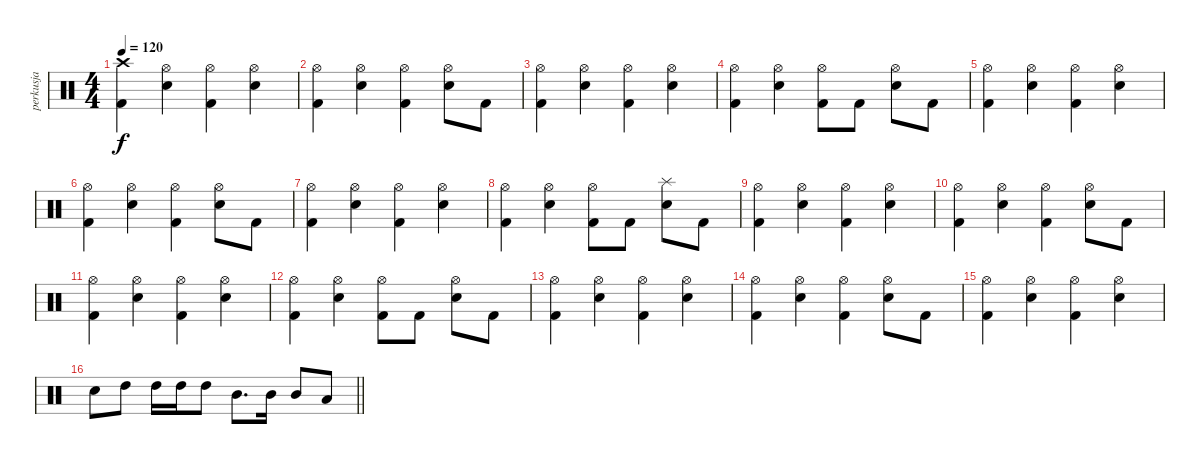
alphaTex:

\track ("perkusja" "perkusja") {instrument percussion}
\staff {score}
\articulation defaults
\ts (4 4)
\tempo 120
\clef neutral
\ks c
("Crash high (hit)" "Kick (hit) 2").4{dy f} ("Hi-Hat (open)" "Electric Snare (hit)").4 ("Hi-Hat (open)" "Kick (hit) 2").4 ("Hi-Hat (open)" "Electric Snare (hit)").4 |
("Hi-Hat (open)" "Kick (hit) 2").4 ("Hi-Hat (open)" "Electric Snare (hit)").4 ("Hi-Hat (open)" "Kick (hit) 2").4 ("Hi-Hat (open)" "Electric Snare (hit)").8 "Kick (hit) 2".8 |
("Hi-Hat (open)" "Kick (hit) 2").4 ("Hi-Hat (open)" "Electric Snare (hit)").4 ("Hi-Hat (open)" "Kick (hit) 2").4 ("Hi-Hat (open)" "Electric Snare (hit)").4 |
("Hi-Hat (open)" "Kick (hit) 2").4 ("Hi-Hat (open)" "Electric Snare (hit)").4 ("Hi-Hat (open)" "Kick (hit) 2").8 "Kick (hit) 2".8 ("Hi-Hat (open)" "Electric Snare (hit)").8 "Kick (hit) 2".8 |
("Hi-Hat (open)" "Kick (hit) 2").4 ("Hi-Hat (open)" "Electric Snare (hit)").4 ("Hi-Hat (open)" "Kick (hit) 2").4 ("Hi-Hat (open)" "Electric Snare (hit)").4 |
("Hi-Hat (open)" "Kick (hit) 2").4 ("Hi-Hat (open)" "Electric Snare (hit)").4 ("Hi-Hat (open)" "Kick (hit) 2").4 ("Hi-Hat (open)" "Electric Snare (hit)").8 "Kick (hit) 2".8 |
("Hi-Hat (open)" "Kick (hit) 2").4 ("Hi-Hat (open)" "Electric Snare (hit)").4 ("Hi-Hat (open)" "Kick (hit) 2").4 ("Hi-Hat (open)" "Electric Snare (hit)").4 |
("Hi-Hat (open)" "Kick (hit) 2").4 ("Hi-Hat (open)" "Electric Snare (hit)").4 ("Hi-Hat (open)" "Kick (hit) 2").8 "Kick (hit) 2".8 ("Splash (hit)" "Electric Snare (hit)").8 "Kick (hit) 2".8 |
("Hi-Hat (open)" "Kick (hit) 2").4 ("Hi-Hat (open)" "Electric Snare (hit)").4 ("Hi-Hat (open)" "Kick (hit) 2").4 ("Hi-Hat (open)" "Electric Snare (hit)").4 |
("Hi-Hat (open)" "Kick (hit) 2").4 ("Hi-Hat (open)" "Electric Snare (hit)").4 ("Hi-Hat (open)" "Kick (hit) 2").4 ("Hi-Hat (open)" "Electric Snare (hit)").8 "Kick (hit) 2".8 |
("Hi-Hat (open)" "Kick (hit) 2").4 ("Hi-Hat (open)" "Electric Snare (hit)").4 ("Hi-Hat (open)" "Kick (hit) 2").4 ("Hi-Hat (open)" "Electric Snare (hit)").4 |
("Hi-Hat (open)" "Kick (hit) 2").4 ("Hi-Hat (open)" "Electric Snare (hit)").4 ("Hi-Hat (open)" "Kick (hit) 2").8 "Kick (hit) 2".8 ("Hi-Hat (open)" "Electric Snare (hit)").8 "Kick (hit) 2".8 |
("Hi-Hat (open)" "Kick (hit) 2").4 ("Hi-Hat (open)" "Electric Snare (hit)").4 ("Hi-Hat (open)" "Kick (hit) 2").4 ("Hi-Hat (open)" "Electric Snare (hit)").4 |
("Hi-Hat (open)" "Kick (hit) 2").4 ("Hi-Hat (open)" "Electric Snare (hit)").4 ("Hi-Hat (open)" "Kick (hit) 2").4 ("Hi-Hat (open)" "Electric Snare (hit)").8 "Kick (hit) 2".8 |
("Hi-Hat (open)" "Kick (hit) 2").4 ("Hi-Hat (open)" "Electric Snare (hit)").4 ("Hi-Hat (open)" "Kick (hit) 2").4 ("Hi-Hat (open)" "Electric Snare (hit)").4 |
\barLineRight lightlight "Electric Snare (hit)".8 "High Tom (hit)".8 "High Tom (hit)".16 "High Tom (hit)".16 "High Tom (hit)".8 "Mid Tom (hit)".8{d} "Mid Tom (hit)".16 "Mid Tom (hit)".8 "Low Tom (hit)".8
